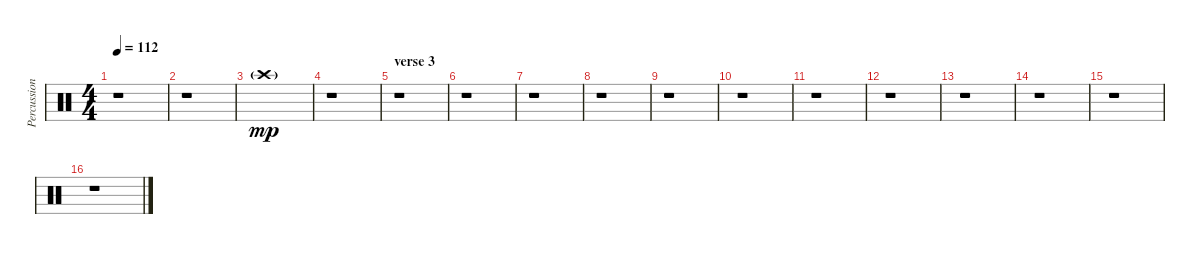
\track ("Percussions (Mason)" "Percussion") {instrument percussion}
\staff {score}
\articulation defaults
\ts (4 4)
\tempo 112
\clef neutral
\ks c
r.1{dy f} |
r.1 |
"Crash high (hit)"{g}.1{dy mp} |
r.1 |
\section ("" "verse 3")
r.1 |
r.1 |
r.1 |
r.1 |
r.1 |
r.1 |
r.1 |
r.1 |
r.1 |
r.1 |
r.1 |
r.1
